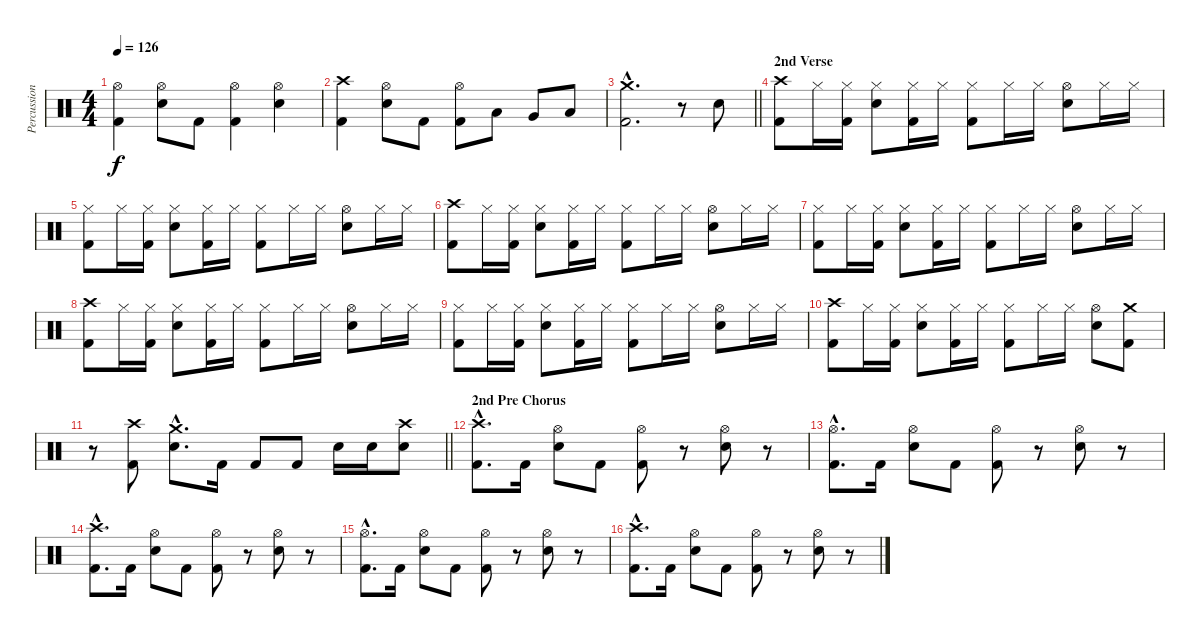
\track ("Percussion" "Percussion") {instrument percussion}
\staff {score}
\articulation defaults
\ts (4 4)
\tempo 126
\clef neutral
\ks c
("Hi-Hat (open)" "Kick (hit) 2").4{dy f} ("Hi-Hat (open)" "Snare (hit) 2").8 "Kick (hit) 2".8 ("Hi-Hat (open)" "Kick (hit) 2").4 ("Hi-Hat (open)" "Snare (hit) 2").4 |
("Crash high (hit)" "Kick (hit) 2").4 ("Hi-Hat (open)" "Snare (hit) 2").8 "Kick (hit) 2".8 ("Hi-Hat (open)" "Kick (hit) 2").8 "Low Tom (hit)".8 "Very Low Tom (hit)".8 "Low Floor Tom (hit)".8 |
\barLineRight lightlight
("Crash medium (hit)"{hac} "Kick (hit) 2"{hac}).2{d} r.8 "Snare (hit) 2".8 |
\section ("" "2nd Verse")
("Crash high (hit)" "Kick (hit) 2").8 "Hi-Hat (closed)".16 ("Hi-Hat (closed)" "Kick (hit) 2").16 ("Hi-Hat (closed)" "Snare (hit) 2").8 ("Hi-Hat (closed)" "Kick (hit) 2").16 "Hi-Hat (closed)".16 ("Hi-Hat (closed)" "Kick (hit) 2").8 "Hi-Hat (closed)".16 "Hi-Hat (closed)".16 ("Hi-Hat (open)" "Snare (hit) 2").8 "Hi-Hat (closed)".16 "Hi-Hat (closed)".16 |
("Hi-Hat (closed)" "Kick (hit) 2").8 "Hi-Hat (closed)".16 ("Hi-Hat (closed)" "Kick (hit) 2").16 ("Hi-Hat (closed)" "Snare (hit) 2").8 ("Hi-Hat (closed)" "Kick (hit) 2").16 "Hi-Hat (closed)".16 ("Hi-Hat (closed)" "Kick (hit) 2").8 "Hi-Hat (closed)".16 "Hi-Hat (closed)".16 ("Hi-Hat (open)" "Snare (hit) 2").8 "Hi-Hat (closed)".16 "Hi-Hat (closed)".16 |
("Crash high (hit)" "Kick (hit) 2").8 "Hi-Hat (closed)".16 ("Hi-Hat (closed)" "Kick (hit) 2").16 ("Hi-Hat (closed)" "Snare (hit) 2").8 ("Hi-Hat (closed)" "Kick (hit) 2").16 "Hi-Hat (closed)".16 ("Hi-Hat (closed)" "Kick (hit) 2").8 "Hi-Hat (closed)".16 "Hi-Hat (closed)".16 ("Hi-Hat (open)" "Snare (hit) 2").8 "Hi-Hat (closed)".16 "Hi-Hat (closed)".16 |
("Hi-Hat (closed)" "Kick (hit) 2").8 "Hi-Hat (closed)".16 ("Hi-Hat (closed)" "Kick (hit) 2").16 ("Hi-Hat (closed)" "Snare (hit) 2").8 ("Hi-Hat (closed)" "Kick (hit) 2").16 "Hi-Hat (closed)".16 ("Hi-Hat (closed)" "Kick (hit) 2").8 "Hi-Hat (closed)".16 "Hi-Hat (closed)".16 ("Hi-Hat (open)" "Snare (hit) 2").8 "Hi-Hat (closed)".16 "Hi-Hat (closed)".16 |
("Crash high (hit)" "Kick (hit) 2").8 "Hi-Hat (closed)".16 ("Hi-Hat (closed)" "Kick (hit) 2").16 ("Hi-Hat (closed)" "Snare (hit) 2").8 ("Hi-Hat (closed)" "Kick (hit) 2").16 "Hi-Hat (closed)".16 ("Hi-Hat (closed)" "Kick (hit) 2").8 "Hi-Hat (closed)".16 "Hi-Hat (closed)".16 ("Hi-Hat (open)" "Snare (hit) 2").8 "Hi-Hat (closed)".16 "Hi-Hat (closed)".16 |
("Hi-Hat (closed)" "Kick (hit) 2").8 "Hi-Hat (closed)".16 ("Hi-Hat (closed)" "Kick (hit) 2").16 ("Hi-Hat (closed)" "Snare (hit) 2").8 ("Hi-Hat (closed)" "Kick (hit) 2").16 "Hi-Hat (closed)".16 ("Hi-Hat (closed)" "Kick (hit) 2").8 "Hi-Hat (closed)".16 "Hi-Hat (closed)".16 ("Hi-Hat (open)" "Snare (hit) 2").8 "Hi-Hat (closed)".16 "Hi-Hat (closed)".16 |
("Crash high (hit)" "Kick (hit) 2").8 "Hi-Hat (closed)".16 ("Hi-Hat (closed)" "Kick (hit) 2").16 ("Hi-Hat (closed)" "Snare (hit) 2").8 ("Hi-Hat (closed)" "Kick (hit) 2").16 "Hi-Hat (closed)".16 ("Hi-Hat (closed)" "Kick (hit) 2").8 "Hi-Hat (closed)".16 "Hi-Hat (closed)".16 ("Hi-Hat (open)" "Snare (hit) 2").8 ("Crash medium (hit)" "Kick (hit) 2").8 |
\barLineRight lightlight
r.8 ("Crash high (hit)" "Kick (hit) 2").8 ("Crash medium (hit)"{hac} "Snare (hit) 2"{hac}).8{d} "Kick (hit) 2".16 "Kick (hit) 2".8 "Kick (hit) 2".8 "Snare (hit) 2".16 "Snare (hit) 2".16 ("Crash high (hit)" "Snare (hit) 2").8 |
\section ("" "2nd Pre Chorus")
("Crash high (hit)"{hac} "Kick (hit) 2"{hac}).8{d} "Kick (hit) 2".16 ("Hi-Hat (open)" "Snare (hit) 2").8 "Kick (hit) 2".8 ("Hi-Hat (open)" "Kick (hit) 2").8 r.8 ("Hi-Hat (open)" "Snare (hit) 2").8 r.8 |
("Hi-Hat (open)"{hac} "Kick (hit) 2"{hac}).8{d} "Kick (hit) 2".16 ("Hi-Hat (open)" "Snare (hit) 2").8 "Kick (hit) 2".8 ("Hi-Hat (open)" "Kick (hit) 2").8 r.8 ("Hi-Hat (open)" "Snare (hit) 2").8 r.8 |
("Crash high (hit)"{hac} "Kick (hit) 2"{hac}).8{d} "Kick (hit) 2".16 ("Hi-Hat (open)" "Snare (hit) 2").8 "Kick (hit) 2".8 ("Hi-Hat (open)" "Kick (hit) 2").8 r.8 ("Hi-Hat (open)" "Snare (hit) 2").8 r.8 |
("Hi-Hat (open)"{hac} "Kick (hit) 2"{hac}).8{d} "Kick (hit) 2".16 ("Hi-Hat (open)" "Snare (hit) 2").8 "Kick (hit) 2".8 ("Hi-Hat (open)" "Kick (hit) 2").8 r.8 ("Hi-Hat (open)" "Snare (hit) 2").8 r.8 |
("Crash high (hit)"{hac} "Kick (hit) 2"{hac}).8{d} "Kick (hit) 2".16 ("Hi-Hat (open)" "Snare (hit) 2").8 "Kick (hit) 2".8 ("Hi-Hat (open)" "Kick (hit) 2").8 r.8 ("Hi-Hat (open)" "Snare (hit) 2").8 r.8
